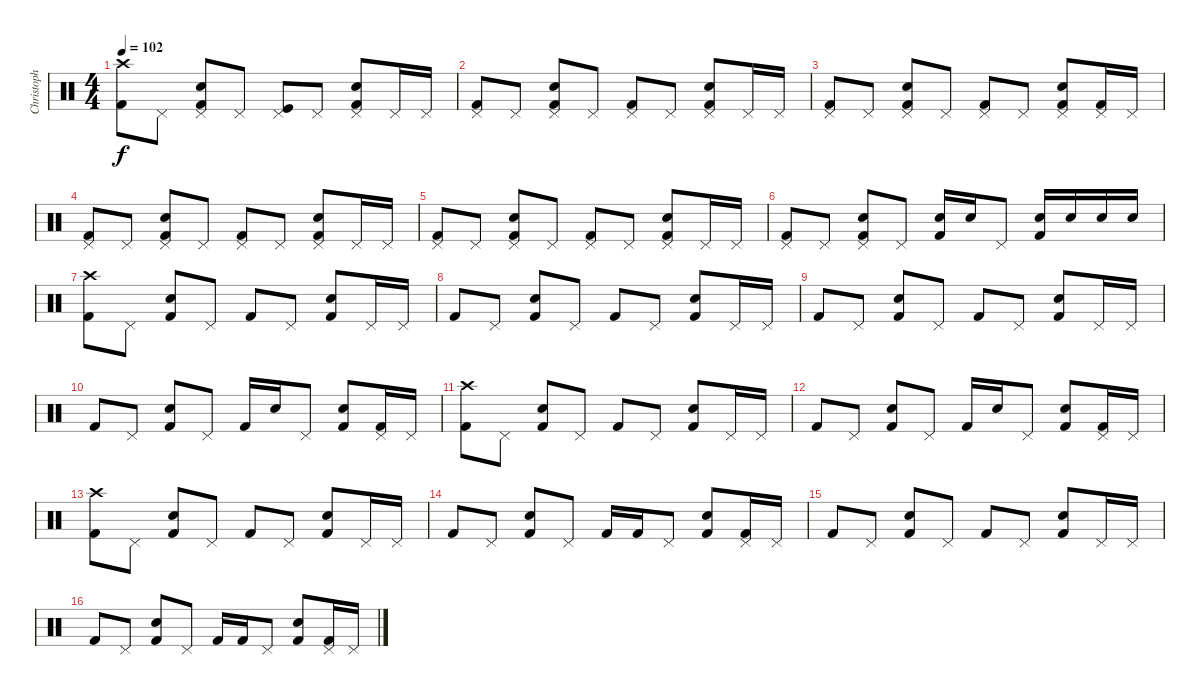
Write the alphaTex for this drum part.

\track ("Christoph Schneider" "Christoph ") {instrument percussion}
\staff {score}
\articulation defaults
\ts (4 4)
\tempo 102
\clef neutral
\ks c
("Crash high (hit)" "Kick (hit) 2").8{dy f} "Pedal Hi-Hat (hit)".8 ("Pedal Hi-Hat (hit)" "Snare (hit) 2" "Kick (hit) 2").8 "Pedal Hi-Hat (hit)".8 ("Pedal Hi-Hat (hit)" "Kick (hit)").8 "Pedal Hi-Hat (hit)".8 ("Pedal Hi-Hat (hit)" "Snare (hit) 2" "Kick (hit) 2").8 "Pedal Hi-Hat (hit)".16 "Pedal Hi-Hat (hit)".16 |
("Pedal Hi-Hat (hit)" "Kick (hit) 2").8 "Pedal Hi-Hat (hit)".8 ("Pedal Hi-Hat (hit)" "Snare (hit) 2" "Kick (hit) 2").8 "Pedal Hi-Hat (hit)".8 ("Pedal Hi-Hat (hit)" "Kick (hit) 2").8 "Pedal Hi-Hat (hit)".8 ("Pedal Hi-Hat (hit)" "Snare (hit) 2" "Kick (hit) 2").8 "Pedal Hi-Hat (hit)".16 "Pedal Hi-Hat (hit)".16 |
("Pedal Hi-Hat (hit)" "Kick (hit) 2").8 "Pedal Hi-Hat (hit)".8 ("Pedal Hi-Hat (hit)" "Snare (hit) 2" "Kick (hit) 2").8 "Pedal Hi-Hat (hit)".8 ("Pedal Hi-Hat (hit)" "Kick (hit) 2").8 "Pedal Hi-Hat (hit)".8 ("Pedal Hi-Hat (hit)" "Snare (hit) 2" "Kick (hit) 2").8 ("Pedal Hi-Hat (hit)" "Kick (hit) 2").16 "Pedal Hi-Hat (hit)".16 |
("Pedal Hi-Hat (hit)" "Kick (hit) 2").8 "Pedal Hi-Hat (hit)".8 ("Pedal Hi-Hat (hit)" "Snare (hit) 2" "Kick (hit) 2").8 "Pedal Hi-Hat (hit)".8 ("Pedal Hi-Hat (hit)" "Kick (hit) 2").8 "Pedal Hi-Hat (hit)".8 ("Pedal Hi-Hat (hit)" "Snare (hit) 2" "Kick (hit) 2").8 "Pedal Hi-Hat (hit)".16 "Pedal Hi-Hat (hit)".16 |
("Pedal Hi-Hat (hit)" "Kick (hit) 2").8 "Pedal Hi-Hat (hit)".8 ("Pedal Hi-Hat (hit)" "Snare (hit) 2" "Kick (hit) 2").8 "Pedal Hi-Hat (hit)".8 ("Pedal Hi-Hat (hit)" "Kick (hit) 2").8 "Pedal Hi-Hat (hit)".8 ("Pedal Hi-Hat (hit)" "Snare (hit) 2" "Kick (hit) 2").8 "Pedal Hi-Hat (hit)".16 "Pedal Hi-Hat (hit)".16 |
("Pedal Hi-Hat (hit)" "Kick (hit) 2").8 "Pedal Hi-Hat (hit)".8 ("Pedal Hi-Hat (hit)" "Snare (hit) 2" "Kick (hit) 2").8 "Pedal Hi-Hat (hit)".8 ("Snare (hit) 2" "Kick (hit) 2").16 "Snare (hit) 2".16 "Pedal Hi-Hat (hit)".8 ("Snare (hit) 2" "Kick (hit) 2").16 "Snare (hit) 2".16 "Snare (hit) 2".16 "Snare (hit) 2".16 |
("Crash high (hit)" "Kick (hit) 2").8 "Pedal Hi-Hat (hit)".8 ("Snare (hit) 2" "Kick (hit) 2").8 "Pedal Hi-Hat (hit)".8 "Kick (hit) 2".8 "Pedal Hi-Hat (hit)".8 ("Snare (hit) 2" "Kick (hit) 2").8 "Pedal Hi-Hat (hit)".16 "Pedal Hi-Hat (hit)".16 |
"Kick (hit) 2".8 "Pedal Hi-Hat (hit)".8 ("Snare (hit) 2" "Kick (hit) 2").8 "Pedal Hi-Hat (hit)".8 "Kick (hit) 2".8 "Pedal Hi-Hat (hit)".8 ("Snare (hit) 2" "Kick (hit) 2").8 "Pedal Hi-Hat (hit)".16 "Pedal Hi-Hat (hit)".16 |
"Kick (hit) 2".8 "Pedal Hi-Hat (hit)".8 ("Snare (hit) 2" "Kick (hit) 2").8 "Pedal Hi-Hat (hit)".8 "Kick (hit) 2".8 "Pedal Hi-Hat (hit)".8 ("Snare (hit) 2" "Kick (hit) 2").8 "Pedal Hi-Hat (hit)".16 "Pedal Hi-Hat (hit)".16 |
"Kick (hit) 2".8 "Pedal Hi-Hat (hit)".8 ("Snare (hit) 2" "Kick (hit) 2").8 "Pedal Hi-Hat (hit)".8 "Kick (hit) 2".16 "Snare (hit) 2".16 "Pedal Hi-Hat (hit)".8 ("Snare (hit) 2" "Kick (hit) 2").8 ("Pedal Hi-Hat (hit)" "Kick (hit) 2").16 "Pedal Hi-Hat (hit)".16 |
("Crash high (hit)" "Kick (hit) 2").8 "Pedal Hi-Hat (hit)".8 ("Snare (hit) 2" "Kick (hit) 2").8 "Pedal Hi-Hat (hit)".8 "Kick (hit) 2".8 "Pedal Hi-Hat (hit)".8 ("Snare (hit) 2" "Kick (hit) 2").8 "Pedal Hi-Hat (hit)".16 "Pedal Hi-Hat (hit)".16 |
"Kick (hit) 2".8 "Pedal Hi-Hat (hit)".8 ("Snare (hit) 2" "Kick (hit) 2").8 "Pedal Hi-Hat (hit)".8 "Kick (hit) 2".16 "Snare (hit) 2".16 "Pedal Hi-Hat (hit)".8 ("Snare (hit) 2" "Kick (hit) 2").8 ("Pedal Hi-Hat (hit)" "Kick (hit) 2").16 "Pedal Hi-Hat (hit)".16 |
("Crash high (hit)" "Kick (hit) 2").8 "Pedal Hi-Hat (hit)".8 ("Snare (hit) 2" "Kick (hit) 2").8 "Pedal Hi-Hat (hit)".8 "Kick (hit) 2".8 "Pedal Hi-Hat (hit)".8 ("Snare (hit) 2" "Kick (hit) 2").8 "Pedal Hi-Hat (hit)".16 "Pedal Hi-Hat (hit)".16 |
"Kick (hit) 2".8 "Pedal Hi-Hat (hit)".8 ("Snare (hit) 2" "Kick (hit) 2").8 "Pedal Hi-Hat (hit)".8 "Kick (hit) 2".16 "Kick (hit) 2".16 "Pedal Hi-Hat (hit)".8 ("Snare (hit) 2" "Kick (hit) 2").8 ("Pedal Hi-Hat (hit)" "Kick (hit) 2").16 "Pedal Hi-Hat (hit)".16 |
"Kick (hit) 2".8 "Pedal Hi-Hat (hit)".8 ("Snare (hit) 2" "Kick (hit) 2").8 "Pedal Hi-Hat (hit)".8 "Kick (hit) 2".8 "Pedal Hi-Hat (hit)".8 ("Snare (hit) 2" "Kick (hit) 2").8 "Pedal Hi-Hat (hit)".16 "Pedal Hi-Hat (hit)".16 |
"Kick (hit) 2".8 "Pedal Hi-Hat (hit)".8 ("Snare (hit) 2" "Kick (hit) 2").8 "Pedal Hi-Hat (hit)".8 "Kick (hit) 2".16 "Kick (hit) 2".16 "Pedal Hi-Hat (hit)".8 ("Snare (hit) 2" "Kick (hit) 2").8 ("Pedal Hi-Hat (hit)" "Kick (hit) 2").16 "Pedal Hi-Hat (hit)".16
